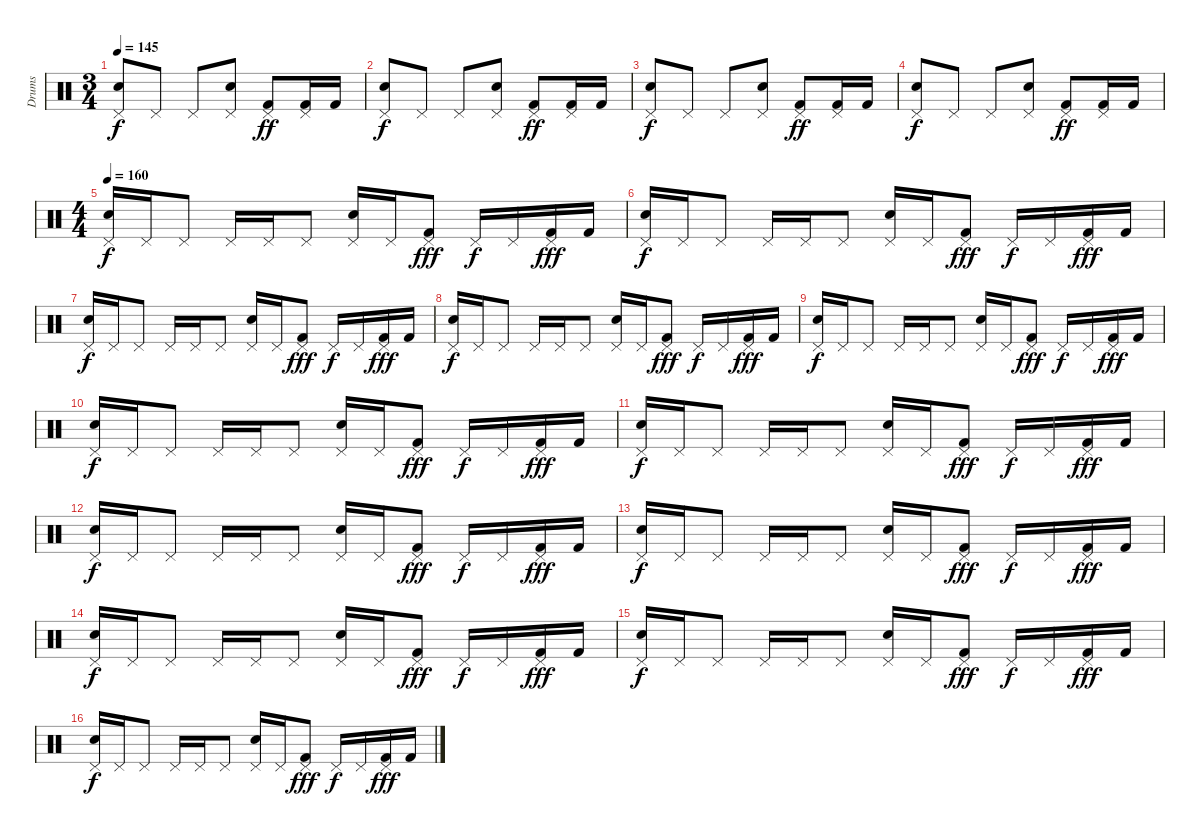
\track ("Drums" "Drums") {instrument percussion}
\staff {score}
\articulation defaults
\ts (3 4)
\tempo 145
\clef neutral
\ks c
("Pedal Hi-Hat (hit)" "Snare (hit) 2").8{dy f} "Pedal Hi-Hat (hit)".8 "Pedal Hi-Hat (hit)".8 ("Pedal Hi-Hat (hit)" "Snare (hit) 2").8 ("Kick (hit) 2" "Pedal Hi-Hat (hit)").8{dy ff} ("Kick (hit) 2" "Pedal Hi-Hat (hit)").16 "Kick (hit) 2".16 |
("Pedal Hi-Hat (hit)" "Snare (hit) 2").8{dy f} "Pedal Hi-Hat (hit)".8 "Pedal Hi-Hat (hit)".8 ("Pedal Hi-Hat (hit)" "Snare (hit) 2").8 ("Kick (hit) 2" "Pedal Hi-Hat (hit)").8{dy ff} ("Kick (hit) 2" "Pedal Hi-Hat (hit)").16 "Kick (hit) 2".16 |
("Pedal Hi-Hat (hit)" "Snare (hit) 2").8{dy f} "Pedal Hi-Hat (hit)".8 "Pedal Hi-Hat (hit)".8 ("Pedal Hi-Hat (hit)" "Snare (hit) 2").8 ("Kick (hit) 2" "Pedal Hi-Hat (hit)").8{dy ff} ("Kick (hit) 2" "Pedal Hi-Hat (hit)").16 "Kick (hit) 2".16 |
("Pedal Hi-Hat (hit)" "Snare (hit) 2").8{dy f} "Pedal Hi-Hat (hit)".8 "Pedal Hi-Hat (hit)".8 ("Pedal Hi-Hat (hit)" "Snare (hit) 2").8 ("Kick (hit) 2" "Pedal Hi-Hat (hit)").8{dy ff} ("Kick (hit) 2" "Pedal Hi-Hat (hit)").16 "Kick (hit) 2".16 |
\ts (4 4)
\tempo 160
("Pedal Hi-Hat (hit)" "Electric Snare (hit)").16{dy f} "Pedal Hi-Hat (hit)".16 "Pedal Hi-Hat (hit)".8 "Pedal Hi-Hat (hit)".16 "Pedal Hi-Hat (hit)".16 "Pedal Hi-Hat (hit)".8 ("Pedal Hi-Hat (hit)" "Electric Snare (hit)").16 "Pedal Hi-Hat (hit)".16 ("Pedal Hi-Hat (hit)" "Kick (hit) 2").8{dy fff} "Pedal Hi-Hat (hit)".16{dy f} "Pedal Hi-Hat (hit)".16 ("Pedal Hi-Hat (hit)" "Kick (hit) 2").16{dy fff} "Kick (hit) 2".16 |
("Pedal Hi-Hat (hit)" "Electric Snare (hit)").16{dy f} "Pedal Hi-Hat (hit)".16 "Pedal Hi-Hat (hit)".8 "Pedal Hi-Hat (hit)".16 "Pedal Hi-Hat (hit)".16 "Pedal Hi-Hat (hit)".8 ("Pedal Hi-Hat (hit)" "Electric Snare (hit)").16 "Pedal Hi-Hat (hit)".16 ("Pedal Hi-Hat (hit)" "Kick (hit) 2").8{dy fff} "Pedal Hi-Hat (hit)".16{dy f} "Pedal Hi-Hat (hit)".16 ("Pedal Hi-Hat (hit)" "Kick (hit) 2").16{dy fff} "Kick (hit) 2".16 |
("Pedal Hi-Hat (hit)" "Electric Snare (hit)").16{dy f} "Pedal Hi-Hat (hit)".16 "Pedal Hi-Hat (hit)".8 "Pedal Hi-Hat (hit)".16 "Pedal Hi-Hat (hit)".16 "Pedal Hi-Hat (hit)".8 ("Pedal Hi-Hat (hit)" "Electric Snare (hit)").16 "Pedal Hi-Hat (hit)".16 ("Pedal Hi-Hat (hit)" "Kick (hit) 2").8{dy fff} "Pedal Hi-Hat (hit)".16{dy f} "Pedal Hi-Hat (hit)".16 ("Pedal Hi-Hat (hit)" "Kick (hit) 2").16{dy fff} "Kick (hit) 2".16 |
("Pedal Hi-Hat (hit)" "Electric Snare (hit)").16{dy f} "Pedal Hi-Hat (hit)".16 "Pedal Hi-Hat (hit)".8 "Pedal Hi-Hat (hit)".16 "Pedal Hi-Hat (hit)".16 "Pedal Hi-Hat (hit)".8 ("Pedal Hi-Hat (hit)" "Electric Snare (hit)").16 "Pedal Hi-Hat (hit)".16 ("Pedal Hi-Hat (hit)" "Kick (hit) 2").8{dy fff} "Pedal Hi-Hat (hit)".16{dy f} "Pedal Hi-Hat (hit)".16 ("Pedal Hi-Hat (hit)" "Kick (hit) 2").16{dy fff} "Kick (hit) 2".16 |
("Pedal Hi-Hat (hit)" "Electric Snare (hit)").16{dy f} "Pedal Hi-Hat (hit)".16 "Pedal Hi-Hat (hit)".8 "Pedal Hi-Hat (hit)".16 "Pedal Hi-Hat (hit)".16 "Pedal Hi-Hat (hit)".8 ("Pedal Hi-Hat (hit)" "Electric Snare (hit)").16 "Pedal Hi-Hat (hit)".16 ("Pedal Hi-Hat (hit)" "Kick (hit) 2").8{dy fff} "Pedal Hi-Hat (hit)".16{dy f} "Pedal Hi-Hat (hit)".16 ("Pedal Hi-Hat (hit)" "Kick (hit) 2").16{dy fff} "Kick (hit) 2".16 |
("Pedal Hi-Hat (hit)" "Electric Snare (hit)").16{dy f} "Pedal Hi-Hat (hit)".16 "Pedal Hi-Hat (hit)".8 "Pedal Hi-Hat (hit)".16 "Pedal Hi-Hat (hit)".16 "Pedal Hi-Hat (hit)".8 ("Pedal Hi-Hat (hit)" "Electric Snare (hit)").16 "Pedal Hi-Hat (hit)".16 ("Pedal Hi-Hat (hit)" "Kick (hit) 2").8{dy fff} "Pedal Hi-Hat (hit)".16{dy f} "Pedal Hi-Hat (hit)".16 ("Pedal Hi-Hat (hit)" "Kick (hit) 2").16{dy fff} "Kick (hit) 2".16 |
("Pedal Hi-Hat (hit)" "Electric Snare (hit)").16{dy f} "Pedal Hi-Hat (hit)".16 "Pedal Hi-Hat (hit)".8 "Pedal Hi-Hat (hit)".16 "Pedal Hi-Hat (hit)".16 "Pedal Hi-Hat (hit)".8 ("Pedal Hi-Hat (hit)" "Electric Snare (hit)").16 "Pedal Hi-Hat (hit)".16 ("Pedal Hi-Hat (hit)" "Kick (hit) 2").8{dy fff} "Pedal Hi-Hat (hit)".16{dy f} "Pedal Hi-Hat (hit)".16 ("Pedal Hi-Hat (hit)" "Kick (hit) 2").16{dy fff} "Kick (hit) 2".16 |
("Pedal Hi-Hat (hit)" "Electric Snare (hit)").16{dy f} "Pedal Hi-Hat (hit)".16 "Pedal Hi-Hat (hit)".8 "Pedal Hi-Hat (hit)".16 "Pedal Hi-Hat (hit)".16 "Pedal Hi-Hat (hit)".8 ("Pedal Hi-Hat (hit)" "Electric Snare (hit)").16 "Pedal Hi-Hat (hit)".16 ("Pedal Hi-Hat (hit)" "Kick (hit) 2").8{dy fff} "Pedal Hi-Hat (hit)".16{dy f} "Pedal Hi-Hat (hit)".16 ("Pedal Hi-Hat (hit)" "Kick (hit) 2").16{dy fff} "Kick (hit) 2".16 |
("Pedal Hi-Hat (hit)" "Electric Snare (hit)").16{dy f} "Pedal Hi-Hat (hit)".16 "Pedal Hi-Hat (hit)".8 "Pedal Hi-Hat (hit)".16 "Pedal Hi-Hat (hit)".16 "Pedal Hi-Hat (hit)".8 ("Pedal Hi-Hat (hit)" "Electric Snare (hit)").16 "Pedal Hi-Hat (hit)".16 ("Pedal Hi-Hat (hit)" "Kick (hit) 2").8{dy fff} "Pedal Hi-Hat (hit)".16{dy f} "Pedal Hi-Hat (hit)".16 ("Pedal Hi-Hat (hit)" "Kick (hit) 2").16{dy fff} "Kick (hit) 2".16 |
("Pedal Hi-Hat (hit)" "Electric Snare (hit)").16{dy f} "Pedal Hi-Hat (hit)".16 "Pedal Hi-Hat (hit)".8 "Pedal Hi-Hat (hit)".16 "Pedal Hi-Hat (hit)".16 "Pedal Hi-Hat (hit)".8 ("Pedal Hi-Hat (hit)" "Electric Snare (hit)").16 "Pedal Hi-Hat (hit)".16 ("Pedal Hi-Hat (hit)" "Kick (hit) 2").8{dy fff} "Pedal Hi-Hat (hit)".16{dy f} "Pedal Hi-Hat (hit)".16 ("Pedal Hi-Hat (hit)" "Kick (hit) 2").16{dy fff} "Kick (hit) 2".16 |
("Pedal Hi-Hat (hit)" "Electric Snare (hit)").16{dy f} "Pedal Hi-Hat (hit)".16 "Pedal Hi-Hat (hit)".8 "Pedal Hi-Hat (hit)".16 "Pedal Hi-Hat (hit)".16 "Pedal Hi-Hat (hit)".8 ("Pedal Hi-Hat (hit)" "Electric Snare (hit)").16 "Pedal Hi-Hat (hit)".16 ("Pedal Hi-Hat (hit)" "Kick (hit) 2").8{dy fff} "Pedal Hi-Hat (hit)".16{dy f} "Pedal Hi-Hat (hit)".16 ("Pedal Hi-Hat (hit)" "Kick (hit) 2").16{dy fff} "Kick (hit) 2".16 |
("Pedal Hi-Hat (hit)" "Electric Snare (hit)").16{dy f} "Pedal Hi-Hat (hit)".16 "Pedal Hi-Hat (hit)".8 "Pedal Hi-Hat (hit)".16 "Pedal Hi-Hat (hit)".16 "Pedal Hi-Hat (hit)".8 ("Pedal Hi-Hat (hit)" "Electric Snare (hit)").16 "Pedal Hi-Hat (hit)".16 ("Pedal Hi-Hat (hit)" "Kick (hit) 2").8{dy fff} "Pedal Hi-Hat (hit)".16{dy f} "Pedal Hi-Hat (hit)".16 ("Pedal Hi-Hat (hit)" "Kick (hit) 2").16{dy fff} "Kick (hit) 2".16
